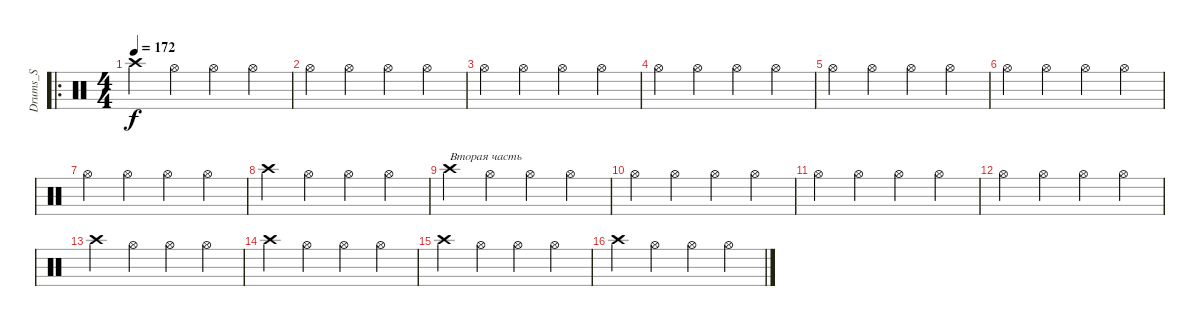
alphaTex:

\track ("Drums_S" "Drums_S") {instrument percussion}
\staff {score}
\articulation defaults
\ro
\ts (4 4)
\tempo 172
\clef neutral
\ks c "Crash high (hit)".4{dy f} "Hi-Hat (open)".4 "Hi-Hat (open)".4 "Hi-Hat (open)".4
|
"Hi-Hat (open)".4 "Hi-Hat (open)".4 "Hi-Hat (open)".4 "Hi-Hat (open)".4 |
"Hi-Hat (open)".4 "Hi-Hat (open)".4 "Hi-Hat (open)".4 "Hi-Hat (open)".4 |
"Hi-Hat (open)".4 "Hi-Hat (open)".4 "Hi-Hat (open)".4 "Hi-Hat (open)".4 |
"Hi-Hat (open)".4 "Hi-Hat (open)".4 "Hi-Hat (open)".4 "Hi-Hat (open)".4 |
"Hi-Hat (open)".4 "Hi-Hat (open)".4 "Hi-Hat (open)".4 "Hi-Hat (open)".4 |
"Hi-Hat (open)".4 "Hi-Hat (open)".4 "Hi-Hat (open)".4 "Hi-Hat (open)".4 |
"Crash high (hit)".4 "Hi-Hat (open)".4 "Hi-Hat (open)".4 "Hi-Hat (open)".4 |
"Crash high (hit)".4{txt "Вторая часть"} "Hi-Hat (open)".4 "Hi-Hat (open)".4 "Hi-Hat (open)".4 |
"Hi-Hat (open)".4 "Hi-Hat (open)".4 "Hi-Hat (open)".4 "Hi-Hat (open)".4 |
"Hi-Hat (open)".4 "Hi-Hat (open)".4 "Hi-Hat (open)".4 "Hi-Hat (open)".4 |
"Hi-Hat (open)".4 "Hi-Hat (open)".4 "Hi-Hat (open)".4 "Hi-Hat (open)".4 |
"Crash high (hit)".4 "Hi-Hat (open)".4 "Hi-Hat (open)".4 "Hi-Hat (open)".4 |
"Crash high (hit)".4 "Hi-Hat (open)".4 "Hi-Hat (open)".4 "Hi-Hat (open)".4 |
"Crash high (hit)".4 "Hi-Hat (open)".4 "Hi-Hat (open)".4 "Hi-Hat (open)".4 |
"Crash high (hit)".4 "Hi-Hat (open)".4 "Hi-Hat (open)".4 "Hi-Hat (open)".4
